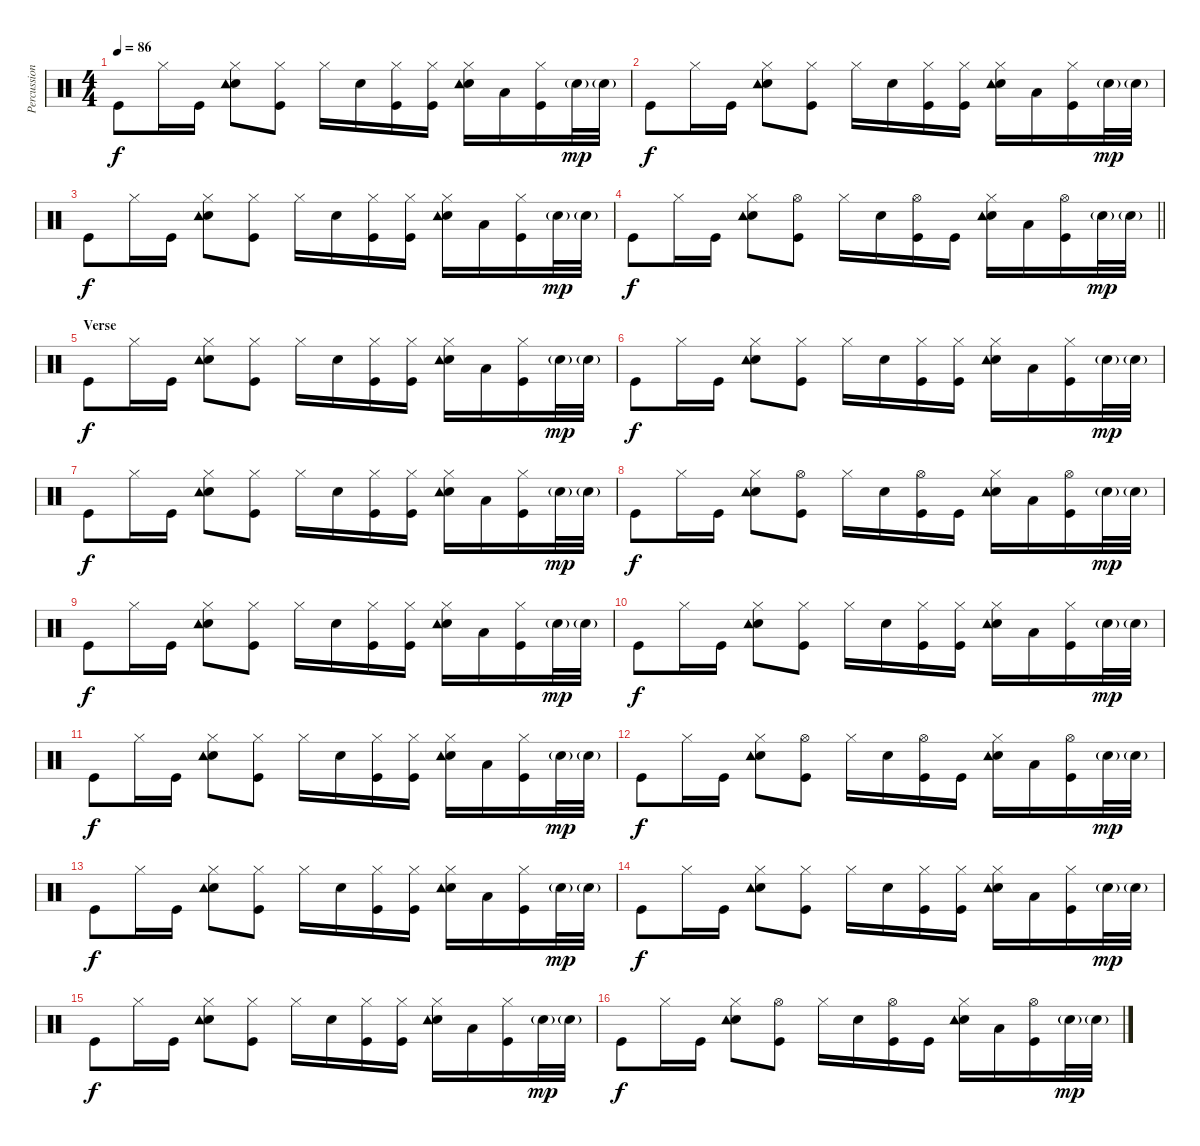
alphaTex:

\track ("Percussion" "Percussion") {instrument percussion}
\staff {score}
\articulation defaults
\ts (4 4)
\tempo 86
\clef neutral
\ks c "Kick (hit)".8{dy f} "Hi-Hat (closed)".16 "Kick (hit)".16
("Snare (hit) 2" "Hi-Hat (closed)" "Tambourine (hit)").8 ("Hi-Hat (closed)" "Kick (hit)").8 "Hi-Hat (closed)".16 "Snare (hit) 2".16 ("Kick (hit)" "Hi-Hat (closed)").16 ("Kick (hit)" "Hi-Hat (closed)").16 ("Snare (hit) 2" "Hi-Hat (closed)" "Tambourine (hit)").16 "Low Tom (hit)".16 ("Hi-Hat (closed)" "Kick (hit)").16 "Snare (hit) 2"{g}.32{dy mp} "Snare (hit) 2"{g}.32 |
"Kick (hit)".8{dy f} "Hi-Hat (closed)".16 "Kick (hit)".16 ("Snare (hit) 2" "Hi-Hat (closed)" "Tambourine (hit)").8 ("Hi-Hat (closed)" "Kick (hit)").8 "Hi-Hat (closed)".16 "Snare (hit) 2".16 ("Kick (hit)" "Hi-Hat (closed)").16 ("Kick (hit)" "Hi-Hat (closed)").16 ("Snare (hit) 2" "Hi-Hat (closed)" "Tambourine (hit)").16 "Low Tom (hit)".16 ("Hi-Hat (closed)" "Kick (hit)").16 "Snare (hit) 2"{g}.32{dy mp} "Snare (hit) 2"{g}.32 |
"Kick (hit)".8{dy f} "Hi-Hat (closed)".16 "Kick (hit)".16 ("Snare (hit) 2" "Hi-Hat (closed)" "Tambourine (hit)").8 ("Hi-Hat (closed)" "Kick (hit)").8 "Hi-Hat (closed)".16 "Snare (hit) 2".16 ("Kick (hit)" "Hi-Hat (closed)").16 ("Kick (hit)" "Hi-Hat (closed)").16 ("Snare (hit) 2" "Hi-Hat (closed)" "Tambourine (hit)").16 "Low Tom (hit)".16 ("Hi-Hat (closed)" "Kick (hit)").16 "Snare (hit) 2"{g}.32{dy mp} "Snare (hit) 2"{g}.32 |
\barLineRight lightlight "Kick (hit)".8{dy f} "Hi-Hat (closed)".16 "Kick (hit)".16
("Snare (hit) 2" "Hi-Hat (closed)" "Tambourine (hit)").8 ("Hi-Hat (open)" "Kick (hit)").8 "Hi-Hat (closed)".16 "Snare (hit) 2".16 ("Kick (hit)" "Hi-Hat (open)").16 "Kick (hit)".16 ("Snare (hit) 2" "Tambourine (hit)" "Hi-Hat (closed)").16 "Low Tom (hit)".16 ("Hi-Hat (open)" "Kick (hit)").16 "Snare (hit) 2"{g}.32{dy mp} "Snare (hit) 2"{g}.32 |
\section ("" "Verse")
"Kick (hit)".8{dy f} "Hi-Hat (closed)".16 "Kick (hit)".16 ("Snare (hit) 2" "Hi-Hat (closed)" "Tambourine (hit)").8 ("Hi-Hat (closed)" "Kick (hit)").8 "Hi-Hat (closed)".16 "Snare (hit) 2".16 ("Kick (hit)" "Hi-Hat (closed)").16 ("Kick (hit)" "Hi-Hat (closed)").16 ("Snare (hit) 2" "Hi-Hat (closed)" "Tambourine (hit)").16 "Low Tom (hit)".16 ("Hi-Hat (closed)" "Kick (hit)").16 "Snare (hit) 2"{g}.32{dy mp} "Snare (hit) 2"{g}.32 |
"Kick (hit)".8{dy f} "Hi-Hat (closed)".16 "Kick (hit)".16 ("Snare (hit) 2" "Hi-Hat (closed)" "Tambourine (hit)").8 ("Hi-Hat (closed)" "Kick (hit)").8 "Hi-Hat (closed)".16 "Snare (hit) 2".16 ("Kick (hit)" "Hi-Hat (closed)").16 ("Kick (hit)" "Hi-Hat (closed)").16 ("Snare (hit) 2" "Hi-Hat (closed)" "Tambourine (hit)").16 "Low Tom (hit)".16 ("Hi-Hat (closed)" "Kick (hit)").16 "Snare (hit) 2"{g}.32{dy mp} "Snare (hit) 2"{g}.32 |
"Kick (hit)".8{dy f} "Hi-Hat (closed)".16 "Kick (hit)".16 ("Snare (hit) 2" "Hi-Hat (closed)" "Tambourine (hit)").8 ("Hi-Hat (closed)" "Kick (hit)").8 "Hi-Hat (closed)".16 "Snare (hit) 2".16 ("Kick (hit)" "Hi-Hat (closed)").16 ("Kick (hit)" "Hi-Hat (closed)").16 ("Snare (hit) 2" "Hi-Hat (closed)" "Tambourine (hit)").16 "Low Tom (hit)".16 ("Hi-Hat (closed)" "Kick (hit)").16 "Snare (hit) 2"{g}.32{dy mp} "Snare (hit) 2"{g}.32 |
"Kick (hit)".8{dy f} "Hi-Hat (closed)".16 "Kick (hit)".16 ("Snare (hit) 2" "Hi-Hat (closed)" "Tambourine (hit)").8 ("Hi-Hat (open)" "Kick (hit)").8 "Hi-Hat (closed)".16 "Snare (hit) 2".16 ("Kick (hit)" "Hi-Hat (open)").16 "Kick (hit)".16 ("Snare (hit) 2" "Tambourine (hit)" "Hi-Hat (closed)").16 "Low Tom (hit)".16 ("Hi-Hat (open)" "Kick (hit)").16 "Snare (hit) 2"{g}.32{dy mp} "Snare (hit) 2"{g}.32 |
"Kick (hit)".8{dy f} "Hi-Hat (closed)".16 "Kick (hit)".16 ("Snare (hit) 2" "Hi-Hat (closed)" "Tambourine (hit)").8 ("Hi-Hat (closed)" "Kick (hit)").8 "Hi-Hat (closed)".16 "Snare (hit) 2".16 ("Kick (hit)" "Hi-Hat (closed)").16 ("Kick (hit)" "Hi-Hat (closed)").16 ("Snare (hit) 2" "Hi-Hat (closed)" "Tambourine (hit)").16 "Low Tom (hit)".16 ("Hi-Hat (closed)" "Kick (hit)").16 "Snare (hit) 2"{g}.32{dy mp} "Snare (hit) 2"{g}.32 |
"Kick (hit)".8{dy f} "Hi-Hat (closed)".16 "Kick (hit)".16 ("Snare (hit) 2" "Hi-Hat (closed)" "Tambourine (hit)").8 ("Hi-Hat (closed)" "Kick (hit)").8 "Hi-Hat (closed)".16 "Snare (hit) 2".16 ("Kick (hit)" "Hi-Hat (closed)").16 ("Kick (hit)" "Hi-Hat (closed)").16 ("Snare (hit) 2" "Hi-Hat (closed)" "Tambourine (hit)").16 "Low Tom (hit)".16 ("Hi-Hat (closed)" "Kick (hit)").16 "Snare (hit) 2"{g}.32{dy mp} "Snare (hit) 2"{g}.32 |
"Kick (hit)".8{dy f} "Hi-Hat (closed)".16 "Kick (hit)".16 ("Snare (hit) 2" "Hi-Hat (closed)" "Tambourine (hit)").8 ("Hi-Hat (closed)" "Kick (hit)").8 "Hi-Hat (closed)".16 "Snare (hit) 2".16 ("Kick (hit)" "Hi-Hat (closed)").16 ("Kick (hit)" "Hi-Hat (closed)").16 ("Snare (hit) 2" "Hi-Hat (closed)" "Tambourine (hit)").16 "Low Tom (hit)".16 ("Hi-Hat (closed)" "Kick (hit)").16 "Snare (hit) 2"{g}.32{dy mp} "Snare (hit) 2"{g}.32 |
"Kick (hit)".8{dy f} "Hi-Hat (closed)".16 "Kick (hit)".16 ("Snare (hit) 2" "Hi-Hat (closed)" "Tambourine (hit)").8 ("Hi-Hat (open)" "Kick (hit)").8 "Hi-Hat (closed)".16 "Snare (hit) 2".16 ("Kick (hit)" "Hi-Hat (open)").16 "Kick (hit)".16 ("Snare (hit) 2" "Tambourine (hit)" "Hi-Hat (closed)").16 "Low Tom (hit)".16 ("Hi-Hat (open)" "Kick (hit)").16 "Snare (hit) 2"{g}.32{dy mp} "Snare (hit) 2"{g}.32 |
"Kick (hit)".8{dy f} "Hi-Hat (closed)".16 "Kick (hit)".16 ("Snare (hit) 2" "Hi-Hat (closed)" "Tambourine (hit)").8 ("Hi-Hat (closed)" "Kick (hit)").8 "Hi-Hat (closed)".16 "Snare (hit) 2".16 ("Kick (hit)" "Hi-Hat (closed)").16 ("Kick (hit)" "Hi-Hat (closed)").16 ("Snare (hit) 2" "Hi-Hat (closed)" "Tambourine (hit)").16 "Low Tom (hit)".16 ("Hi-Hat (closed)" "Kick (hit)").16 "Snare (hit) 2"{g}.32{dy mp} "Snare (hit) 2"{g}.32 |
"Kick (hit)".8{dy f} "Hi-Hat (closed)".16 "Kick (hit)".16 ("Snare (hit) 2" "Hi-Hat (closed)" "Tambourine (hit)").8 ("Hi-Hat (closed)" "Kick (hit)").8 "Hi-Hat (closed)".16 "Snare (hit) 2".16 ("Kick (hit)" "Hi-Hat (closed)").16 ("Kick (hit)" "Hi-Hat (closed)").16 ("Snare (hit) 2" "Hi-Hat (closed)" "Tambourine (hit)").16 "Low Tom (hit)".16 ("Hi-Hat (closed)" "Kick (hit)").16 "Snare (hit) 2"{g}.32{dy mp} "Snare (hit) 2"{g}.32 |
"Kick (hit)".8{dy f} "Hi-Hat (closed)".16 "Kick (hit)".16 ("Snare (hit) 2" "Hi-Hat (closed)" "Tambourine (hit)").8 ("Hi-Hat (closed)" "Kick (hit)").8 "Hi-Hat (closed)".16 "Snare (hit) 2".16 ("Kick (hit)" "Hi-Hat (closed)").16 ("Kick (hit)" "Hi-Hat (closed)").16 ("Snare (hit) 2" "Hi-Hat (closed)" "Tambourine (hit)").16 "Low Tom (hit)".16 ("Hi-Hat (closed)" "Kick (hit)").16 "Snare (hit) 2"{g}.32{dy mp} "Snare (hit) 2"{g}.32 |
"Kick (hit)".8{dy f} "Hi-Hat (closed)".16 "Kick (hit)".16 ("Snare (hit) 2" "Hi-Hat (closed)" "Tambourine (hit)").8 ("Hi-Hat (open)" "Kick (hit)").8 "Hi-Hat (closed)".16 "Snare (hit) 2".16 ("Kick (hit)" "Hi-Hat (open)").16 "Kick (hit)".16 ("Snare (hit) 2" "Tambourine (hit)" "Hi-Hat (closed)").16 "Low Tom (hit)".16 ("Hi-Hat (open)" "Kick (hit)").16 "Snare (hit) 2"{g}.32{dy mp} "Snare (hit) 2"{g}.32
